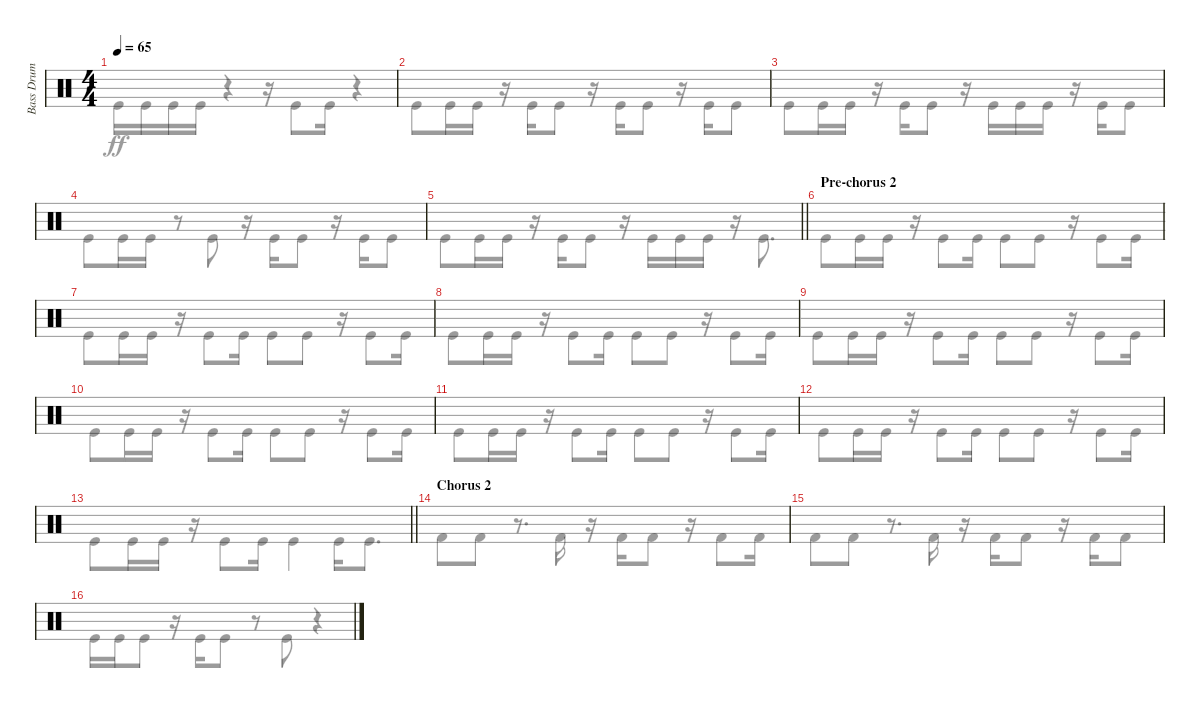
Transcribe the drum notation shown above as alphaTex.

\track ("Bass Drum" "Bass Drum") {instrument percussion}
\staff {score}
\articulation defaults
\voice
\ts (4 4)
\tempo 65
\clef neutral
\ks c
|
|
|
|
\barLineRight lightlight
|
\section ("" "Pre-chorus 2")
|
|
|
|
|
|
|
\barLineRight lightlight
|
\section ("" "Chorus 2")
|
|
\voice
\clef neutral
\ks c "Kick (hit)".16{dy ff} "Kick (hit)".16 "Kick (hit)".16 "Kick (hit)".16
r.4 r.16 "Kick (hit)".8 "Kick (hit)".16 r.4 |
"Kick (hit)".8 "Kick (hit)".16 "Kick (hit)".16 r.16 "Kick (hit)".16 "Kick (hit)".8 r.16 "Kick (hit)".16 "Kick (hit)".8 r.16 "Kick (hit)".16 "Kick (hit)".8 |
"Kick (hit)".8 "Kick (hit)".16 "Kick (hit)".16 r.16 "Kick (hit)".16 "Kick (hit)".8 r.16 "Kick (hit)".16 "Kick (hit)".16 "Kick (hit)".16 r.16 "Kick (hit)".16 "Kick (hit)".8 |
"Kick (hit)".8 "Kick (hit)".16 "Kick (hit)".16 r.8 "Kick (hit)".8 r.16 "Kick (hit)".16 "Kick (hit)".8 r.16 "Kick (hit)".16 "Kick (hit)".8 |
\barLineRight lightlight "Kick (hit)".8 "Kick (hit)".16 "Kick (hit)".16
r.16 "Kick (hit)".16 "Kick (hit)".8 r.16 "Kick (hit)".16 "Kick (hit)".16 "Kick (hit)".16 r.16 "Kick (hit)".8{d} |
"Kick (hit)".8 "Kick (hit)".16 "Kick (hit)".16 r.16 "Kick (hit)".8 "Kick (hit)".16 "Kick (hit)".8 "Kick (hit)".8 r.16 "Kick (hit)".8 "Kick (hit)".16 |
"Kick (hit)".8 "Kick (hit)".16 "Kick (hit)".16 r.16 "Kick (hit)".8 "Kick (hit)".16 "Kick (hit)".8 "Kick (hit)".8 r.16 "Kick (hit)".8 "Kick (hit)".16 |
"Kick (hit)".8 "Kick (hit)".16 "Kick (hit)".16 r.16 "Kick (hit)".8 "Kick (hit)".16 "Kick (hit)".8 "Kick (hit)".8 r.16 "Kick (hit)".8 "Kick (hit)".16 |
"Kick (hit)".8 "Kick (hit)".16 "Kick (hit)".16 r.16 "Kick (hit)".8 "Kick (hit)".16 "Kick (hit)".8 "Kick (hit)".8 r.16 "Kick (hit)".8 "Kick (hit)".16 |
"Kick (hit)".8 "Kick (hit)".16 "Kick (hit)".16 r.16 "Kick (hit)".8 "Kick (hit)".16 "Kick (hit)".8 "Kick (hit)".8 r.16 "Kick (hit)".8 "Kick (hit)".16 |
"Kick (hit)".8 "Kick (hit)".16 "Kick (hit)".16 r.16 "Kick (hit)".8 "Kick (hit)".16 "Kick (hit)".8 "Kick (hit)".8 r.16 "Kick (hit)".8 "Kick (hit)".16 |
"Kick (hit)".8 "Kick (hit)".16 "Kick (hit)".16 r.16 "Kick (hit)".8 "Kick (hit)".16 "Kick (hit)".8 "Kick (hit)".8 r.16 "Kick (hit)".8 "Kick (hit)".16 |
\barLineRight lightlight "Kick (hit)".8 "Kick (hit)".16 "Kick (hit)".16
r.16 "Kick (hit)".8 "Kick (hit)".16 "Kick (hit)".4 "Kick (hit)".16 "Kick (hit)".8{d} |
"Kick (hit) 2".8 "Kick (hit) 2".8 r.8{d} "Kick (hit) 2".16 r.16 "Kick (hit) 2".16 "Kick (hit) 2".8 r.16 "Kick (hit) 2".8 "Kick (hit) 2".16 |
"Kick (hit) 2".8 "Kick (hit) 2".8 r.8{d} "Kick (hit) 2".16 r.16 "Kick (hit) 2".16 "Kick (hit) 2".8 r.16 "Kick (hit) 2".16 "Kick (hit) 2".8 |
"Kick (hit)".16 "Kick (hit)".16 "Kick (hit)".8 r.16 "Kick (hit)".16 "Kick (hit)".8 r.8 "Kick (hit)".8 r.4
